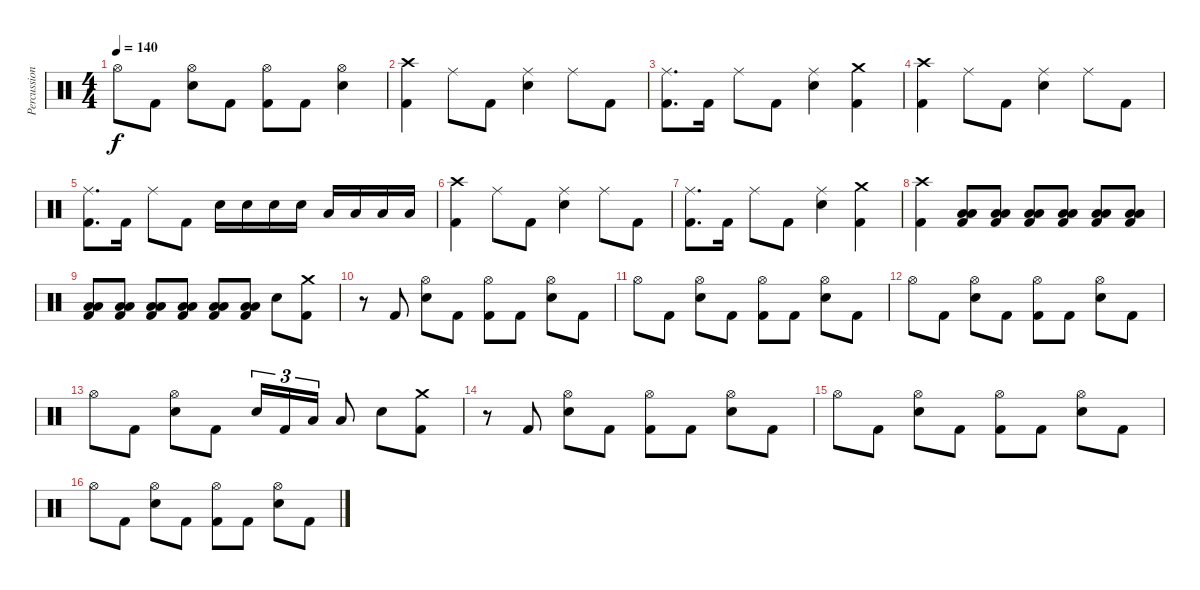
\track ("Percussion" "Percussion") {instrument percussion}
\staff {score}
\articulation defaults
\ts (4 4)
\tempo 140
\clef neutral
\ks c "Hi-Hat (open)".8{dy f} "Kick (hit) 2".8
("Hi-Hat (open)" "Electric Snare (hit)").8 "Kick (hit) 2".8 ("Hi-Hat (open)" "Kick (hit) 2").8 "Kick (hit) 2".8 ("Hi-Hat (open)" "Electric Snare (hit)").4 |
("Crash high (hit)" "Kick (hit) 2").4 "Ride (middle)".8 "Kick (hit) 2".8 ("Ride (middle)" "Electric Snare (hit)").4 "Ride (middle)".8 "Kick (hit) 2".8 |
("Ride (middle)" "Kick (hit) 2").8{d} "Kick (hit) 2".16 "Ride (middle)".8 "Kick (hit) 2".8 ("Ride (middle)" "Electric Snare (hit)").4 ("Crash medium (hit)" "Kick (hit) 2").4 |
("Crash high (hit)" "Kick (hit) 2").4 "Ride (middle)".8 "Kick (hit) 2".8 ("Ride (middle)" "Electric Snare (hit)").4 "Ride (middle)".8 "Kick (hit) 2".8 |
("Ride (middle)" "Kick (hit) 2").8{d} "Kick (hit) 2".16 "Ride (middle)".8 "Kick (hit) 2".8 "Electric Snare (hit)".16 "Electric Snare (hit)".16 "Electric Snare (hit)".16 "Electric Snare (hit)".16 "Low Tom (hit)".16 "Low Tom (hit)".16 "Low Tom (hit)".16 "Low Tom (hit)".16 |
("Crash high (hit)" "Kick (hit) 2").4 "Ride (middle)".8 "Kick (hit) 2".8 ("Ride (middle)" "Electric Snare (hit)").4 "Ride (middle)".8 "Kick (hit) 2".8 |
("Ride (middle)" "Kick (hit) 2").8{d} "Kick (hit) 2".16 "Ride (middle)".8 "Kick (hit) 2".8 ("Ride (middle)" "Electric Snare (hit)").4 ("Crash medium (hit)" "Kick (hit) 2").4 |
("Crash high (hit)" "Kick (hit) 2").4 ("Low Tom (hit)" "Low Floor Tom (hit)" "Kick (hit) 2").8 ("Low Tom (hit)" "Low Floor Tom (hit)" "Kick (hit) 2").8 ("Low Tom (hit)" "Low Floor Tom (hit)" "Kick (hit) 2").8 ("Low Tom (hit)" "Low Floor Tom (hit)" "Kick (hit) 2").8 ("Low Tom (hit)" "Low Floor Tom (hit)" "Kick (hit) 2").8 ("Low Tom (hit)" "Low Floor Tom (hit)" "Kick (hit) 2").8 |
("Low Tom (hit)" "Low Floor Tom (hit)" "Kick (hit) 2").8 ("Low Tom (hit)" "Low Floor Tom (hit)" "Kick (hit) 2").8 ("Low Tom (hit)" "Low Floor Tom (hit)" "Kick (hit) 2").8 ("Low Tom (hit)" "Low Floor Tom (hit)" "Kick (hit) 2").8 ("Low Tom (hit)" "Low Floor Tom (hit)" "Kick (hit) 2").8 ("Low Tom (hit)" "Low Floor Tom (hit)" "Kick (hit) 2").8 "Electric Snare (hit)".8 ("Crash medium (hit)" "Kick (hit) 2").8 |
r.8 "Kick (hit) 2".8 ("Hi-Hat (open)" "Electric Snare (hit)").8 "Kick (hit) 2".8 ("Hi-Hat (open)" "Kick (hit) 2").8 "Kick (hit) 2".8 ("Hi-Hat (open)" "Electric Snare (hit)").8 "Kick (hit) 2".8 |
"Hi-Hat (open)".8 "Kick (hit) 2".8 ("Hi-Hat (open)" "Electric Snare (hit)").8 "Kick (hit) 2".8 ("Hi-Hat (open)" "Kick (hit) 2").8 "Kick (hit) 2".8 ("Hi-Hat (open)" "Electric Snare (hit)").8 "Kick (hit) 2".8 |
"Hi-Hat (open)".8 "Kick (hit) 2".8 ("Hi-Hat (open)" "Electric Snare (hit)").8 "Kick (hit) 2".8 ("Hi-Hat (open)" "Kick (hit) 2").8 "Kick (hit) 2".8 ("Hi-Hat (open)" "Electric Snare (hit)").8 "Kick (hit) 2".8 |
"Hi-Hat (open)".8 "Kick (hit) 2".8 ("Hi-Hat (open)" "Electric Snare (hit)").8 "Kick (hit) 2".8 "Electric Snare (hit)".16{tu (3 2)} "Kick (hit) 2".16{tu (3 2)} "Low Tom (hit)".16{tu (3 2)} "Low Floor Tom (hit)".8 "Electric Snare (hit)".8 ("Crash medium (hit)" "Kick (hit) 2").8 |
r.8 "Kick (hit) 2".8 ("Hi-Hat (open)" "Electric Snare (hit)").8 "Kick (hit) 2".8 ("Hi-Hat (open)" "Kick (hit) 2").8 "Kick (hit) 2".8 ("Hi-Hat (open)" "Electric Snare (hit)").8 "Kick (hit) 2".8 |
"Hi-Hat (open)".8 "Kick (hit) 2".8 ("Hi-Hat (open)" "Electric Snare (hit)").8 "Kick (hit) 2".8 ("Hi-Hat (open)" "Kick (hit) 2").8 "Kick (hit) 2".8 ("Hi-Hat (open)" "Electric Snare (hit)").8 "Kick (hit) 2".8 |
"Hi-Hat (open)".8 "Kick (hit) 2".8 ("Hi-Hat (open)" "Electric Snare (hit)").8 "Kick (hit) 2".8 ("Hi-Hat (open)" "Kick (hit) 2").8 "Kick (hit) 2".8 ("Hi-Hat (open)" "Electric Snare (hit)").8 "Kick (hit) 2".8
